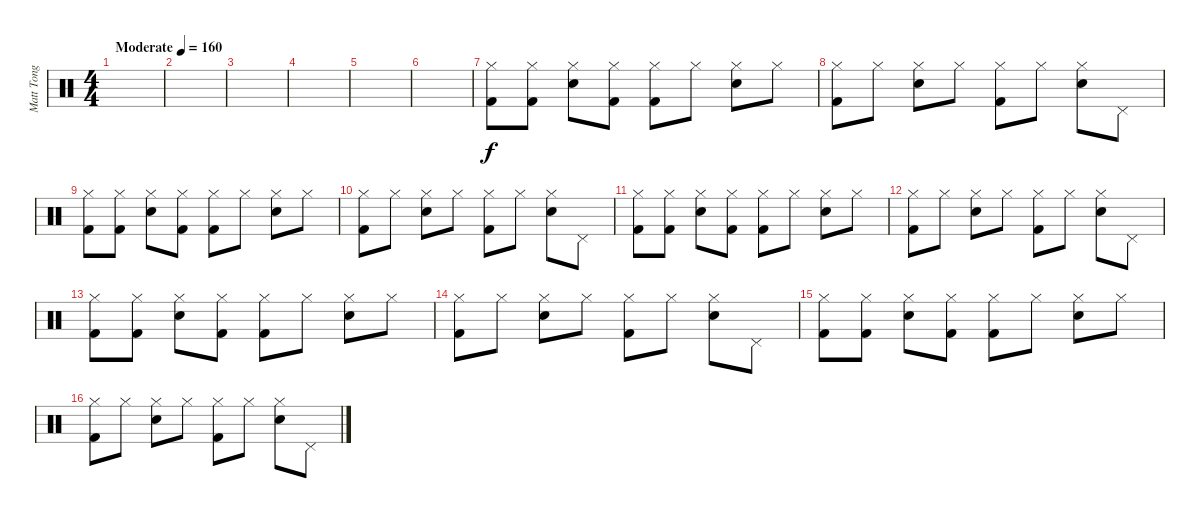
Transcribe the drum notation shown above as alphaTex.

\track ("Matt Tong" "Matt Tong") {instrument percussion}
\staff {score}
\articulation defaults
\ts (4 4)
\tempo (160 "Moderate")
\clef neutral
\ks c
|
|
|
|
|
|
("Hi-Hat (closed)" "Kick (hit) 2").8 ("Hi-Hat (closed)" "Kick (hit) 2").8 ("Hi-Hat (closed)" "Snare (hit) 2").8 ("Hi-Hat (closed)" "Kick (hit) 2").8 ("Hi-Hat (closed)" "Kick (hit) 2").8 "Hi-Hat (closed)".8 ("Hi-Hat (closed)" "Snare (hit) 2").8 "Hi-Hat (closed)".8 |
("Hi-Hat (closed)" "Kick (hit) 2").8 "Hi-Hat (closed)".8 ("Hi-Hat (closed)" "Snare (hit) 2").8 "Hi-Hat (closed)".8 ("Hi-Hat (closed)" "Kick (hit) 2").8 "Hi-Hat (closed)".8 ("Hi-Hat (closed)" "Snare (hit) 2").8 "Pedal Hi-Hat (hit)".8 |
("Hi-Hat (closed)" "Kick (hit) 2").8 ("Hi-Hat (closed)" "Kick (hit) 2").8 ("Hi-Hat (closed)" "Snare (hit) 2").8 ("Hi-Hat (closed)" "Kick (hit) 2").8 ("Hi-Hat (closed)" "Kick (hit) 2").8 "Hi-Hat (closed)".8 ("Hi-Hat (closed)" "Snare (hit) 2").8 "Hi-Hat (closed)".8 |
("Hi-Hat (closed)" "Kick (hit) 2").8 "Hi-Hat (closed)".8 ("Hi-Hat (closed)" "Snare (hit) 2").8 "Hi-Hat (closed)".8 ("Hi-Hat (closed)" "Kick (hit) 2").8 "Hi-Hat (closed)".8 ("Hi-Hat (closed)" "Snare (hit) 2").8 "Pedal Hi-Hat (hit)".8 |
("Hi-Hat (closed)" "Kick (hit) 2").8 ("Hi-Hat (closed)" "Kick (hit) 2").8 ("Hi-Hat (closed)" "Snare (hit) 2").8 ("Hi-Hat (closed)" "Kick (hit) 2").8 ("Hi-Hat (closed)" "Kick (hit) 2").8 "Hi-Hat (closed)".8 ("Hi-Hat (closed)" "Snare (hit) 2").8 "Hi-Hat (closed)".8 |
("Hi-Hat (closed)" "Kick (hit) 2").8 "Hi-Hat (closed)".8 ("Hi-Hat (closed)" "Snare (hit) 2").8 "Hi-Hat (closed)".8 ("Hi-Hat (closed)" "Kick (hit) 2").8 "Hi-Hat (closed)".8 ("Hi-Hat (closed)" "Snare (hit) 2").8 "Pedal Hi-Hat (hit)".8 |
("Hi-Hat (closed)" "Kick (hit) 2").8 ("Hi-Hat (closed)" "Kick (hit) 2").8 ("Hi-Hat (closed)" "Snare (hit) 2").8 ("Hi-Hat (closed)" "Kick (hit) 2").8 ("Hi-Hat (closed)" "Kick (hit) 2").8 "Hi-Hat (closed)".8 ("Hi-Hat (closed)" "Snare (hit) 2").8 "Hi-Hat (closed)".8 |
("Hi-Hat (closed)" "Kick (hit) 2").8 "Hi-Hat (closed)".8 ("Hi-Hat (closed)" "Snare (hit) 2").8 "Hi-Hat (closed)".8 ("Hi-Hat (closed)" "Kick (hit) 2").8 "Hi-Hat (closed)".8 ("Hi-Hat (closed)" "Snare (hit) 2").8 "Pedal Hi-Hat (hit)".8 |
("Hi-Hat (closed)" "Kick (hit) 2").8 ("Hi-Hat (closed)" "Kick (hit) 2").8 ("Hi-Hat (closed)" "Snare (hit) 2").8 ("Hi-Hat (closed)" "Kick (hit) 2").8 ("Hi-Hat (closed)" "Kick (hit) 2").8 "Hi-Hat (closed)".8 ("Hi-Hat (closed)" "Snare (hit) 2").8 "Hi-Hat (closed)".8 |
("Hi-Hat (closed)" "Kick (hit) 2").8 "Hi-Hat (closed)".8 ("Hi-Hat (closed)" "Snare (hit) 2").8 "Hi-Hat (closed)".8 ("Hi-Hat (closed)" "Kick (hit) 2").8 "Hi-Hat (closed)".8 ("Hi-Hat (closed)" "Snare (hit) 2").8 "Pedal Hi-Hat (hit)".8
